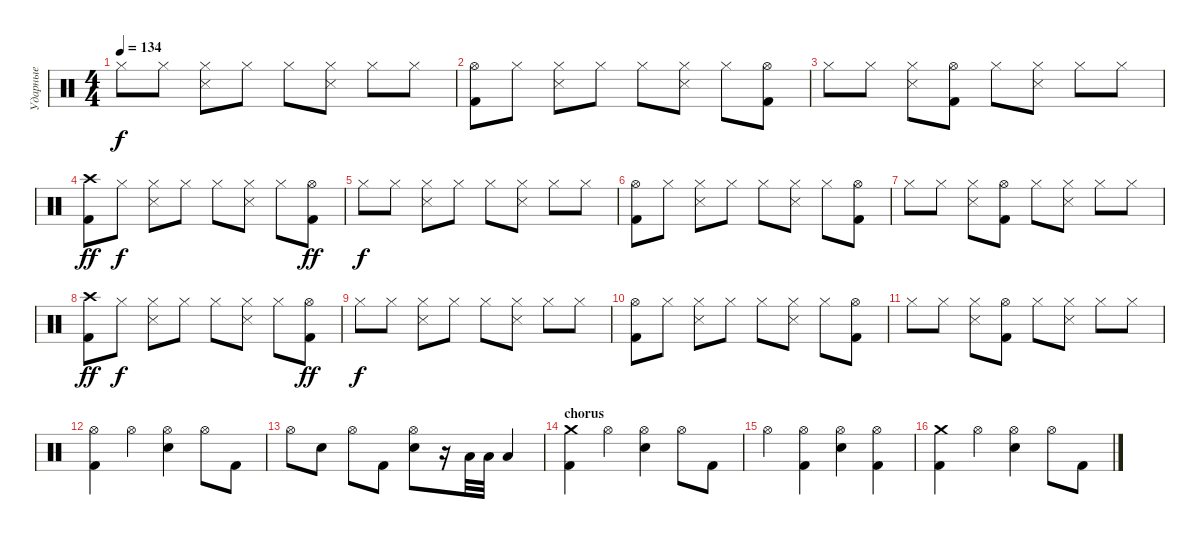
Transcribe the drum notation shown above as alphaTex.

\track ("Ударные" "Ударные") {instrument percussion}
\staff {score}
\articulation defaults
\ts (4 4)
\tempo 134
\clef neutral
\ks c "Hi-Hat (closed)".8{dy f} "Hi-Hat (closed)".8
("Hi-Hat (closed)" "Snare (side stick) 3").8 "Hi-Hat (closed)".8 "Hi-Hat (closed)".8 ("Hi-Hat (closed)" "Snare (side stick) 3").8 "Hi-Hat (closed)".8 "Hi-Hat (closed)".8 |
("Hi-Hat (open)" "Kick (hit) 2").8 "Hi-Hat (closed)".8 ("Hi-Hat (closed)" "Snare (side stick) 3").8 "Hi-Hat (closed)".8 "Hi-Hat (closed)".8 ("Hi-Hat (closed)" "Snare (side stick) 3").8 "Hi-Hat (closed)".8 ("Hi-Hat (open)" "Kick (hit) 2").8 |
"Hi-Hat (closed)".8 "Hi-Hat (closed)".8 ("Hi-Hat (closed)" "Snare (side stick) 3").8 ("Hi-Hat (open)" "Kick (hit) 2").8 "Hi-Hat (closed)".8 ("Hi-Hat (closed)" "Snare (side stick) 3").8 "Hi-Hat (closed)".8 "Hi-Hat (closed)".8 |
("Crash high (hit)" "Kick (hit) 2").8{dy ff} "Hi-Hat (closed)".8{dy f} ("Hi-Hat (closed)" "Snare (side stick) 3").8 "Hi-Hat (closed)".8 "Hi-Hat (closed)".8 ("Hi-Hat (closed)" "Snare (side stick) 3").8 "Hi-Hat (closed)".8 ("Hi-Hat (open)" "Kick (hit) 2").8{dy ff} |
"Hi-Hat (closed)".8{dy f} "Hi-Hat (closed)".8 ("Hi-Hat (closed)" "Snare (side stick) 3").8 "Hi-Hat (closed)".8 "Hi-Hat (closed)".8 ("Hi-Hat (closed)" "Snare (side stick) 3").8 "Hi-Hat (closed)".8 "Hi-Hat (closed)".8 |
("Hi-Hat (open)" "Kick (hit) 2").8 "Hi-Hat (closed)".8 ("Hi-Hat (closed)" "Snare (side stick) 3").8 "Hi-Hat (closed)".8 "Hi-Hat (closed)".8 ("Hi-Hat (closed)" "Snare (side stick) 3").8 "Hi-Hat (closed)".8 ("Hi-Hat (open)" "Kick (hit) 2").8 |
"Hi-Hat (closed)".8 "Hi-Hat (closed)".8 ("Hi-Hat (closed)" "Snare (side stick) 3").8 ("Hi-Hat (open)" "Kick (hit) 2").8 "Hi-Hat (closed)".8 ("Hi-Hat (closed)" "Snare (side stick) 3").8 "Hi-Hat (closed)".8 "Hi-Hat (closed)".8 |
("Crash high (hit)" "Kick (hit) 2").8{dy ff} "Hi-Hat (closed)".8{dy f} ("Hi-Hat (closed)" "Snare (side stick) 3").8 "Hi-Hat (closed)".8 "Hi-Hat (closed)".8 ("Hi-Hat (closed)" "Snare (side stick) 3").8 "Hi-Hat (closed)".8 ("Hi-Hat (open)" "Kick (hit) 2").8{dy ff} |
"Hi-Hat (closed)".8{dy f} "Hi-Hat (closed)".8 ("Hi-Hat (closed)" "Snare (side stick) 3").8 "Hi-Hat (closed)".8 "Hi-Hat (closed)".8 ("Hi-Hat (closed)" "Snare (side stick) 3").8 "Hi-Hat (closed)".8 "Hi-Hat (closed)".8 |
("Hi-Hat (open)" "Kick (hit) 2").8 "Hi-Hat (closed)".8 ("Hi-Hat (closed)" "Snare (side stick) 3").8 "Hi-Hat (closed)".8 "Hi-Hat (closed)".8 ("Hi-Hat (closed)" "Snare (side stick) 3").8 "Hi-Hat (closed)".8 ("Hi-Hat (open)" "Kick (hit) 2").8 |
"Hi-Hat (closed)".8 "Hi-Hat (closed)".8 ("Hi-Hat (closed)" "Snare (side stick) 3").8 ("Hi-Hat (open)" "Kick (hit) 2").8 "Hi-Hat (closed)".8 ("Hi-Hat (closed)" "Snare (side stick) 3").8 "Hi-Hat (closed)".8 "Hi-Hat (closed)".8 |
("Hi-Hat (open)" "Kick (hit) 2").4 "Hi-Hat (open)".4 ("Hi-Hat (open)" "Electric Snare (hit)").4 "Hi-Hat (open)".8 "Kick (hit) 2".8 |
"Hi-Hat (open)".8 "Electric Snare (hit)".8 "Hi-Hat (open)".8 "Kick (hit) 2".8 ("Hi-Hat (open)" "Electric Snare (hit)").8 r.16 "Low Tom (hit)".32 "Low Tom (hit)".32 "Low Floor Tom (hit)".4 |
\section ("" "chorus")
("Crash medium (hit)" "Kick (hit) 2").4 "Hi-Hat (open)".4 ("Hi-Hat (open)" "Electric Snare (hit)").4 "Hi-Hat (open)".8 "Kick (hit) 2".8 |
"Hi-Hat (open)".4 ("Hi-Hat (open)" "Kick (hit) 2").4 ("Hi-Hat (open)" "Electric Snare (hit)").4 ("Hi-Hat (open)" "Kick (hit) 2").4 |
("Crash medium (hit)" "Kick (hit) 2").4 "Hi-Hat (open)".4 ("Hi-Hat (open)" "Electric Snare (hit)").4 "Hi-Hat (open)".8 "Kick (hit) 2".8
